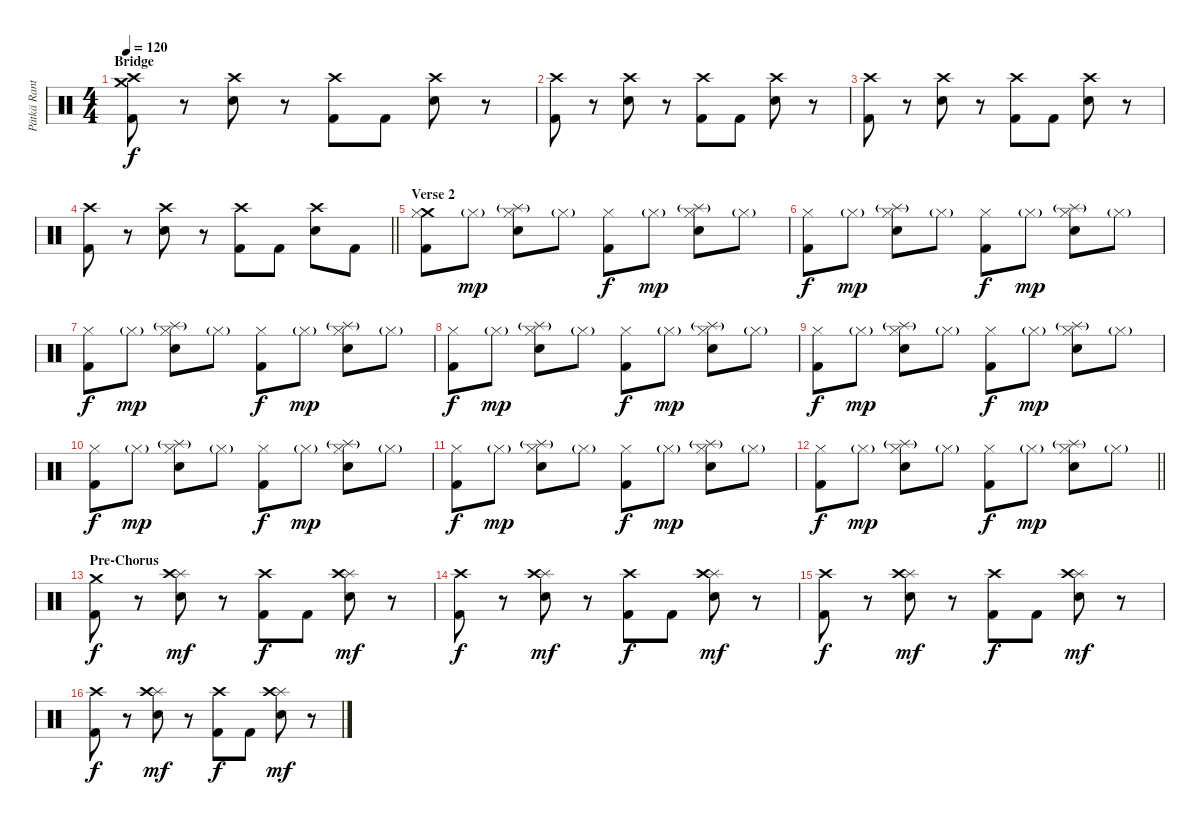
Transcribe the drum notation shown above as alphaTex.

\track ("Pätkä Rantala (Drums)" "Pätkä Rant") {instrument percussion}
\staff {score}
\articulation defaults
\ts (4 4)
\section ("" "Bridge")
\tempo 120
\clef neutral
\ks c
("Crash medium (hit)" "Crash high (hit)" "Kick (hit) 2").8{dy f} r.8 ("Crash high (hit)" "Snare (hit) 2").8 r.8 ("Crash high (hit)" "Kick (hit) 2").8 "Kick (hit) 2".8 ("Crash high (hit)" "Snare (hit) 2").8 r.8 |
("Crash high (hit)" "Kick (hit) 2").8 r.8 ("Crash high (hit)" "Snare (hit) 2").8 r.8 ("Crash high (hit)" "Kick (hit) 2").8 "Kick (hit) 2".8 ("Crash high (hit)" "Snare (hit) 2").8 r.8 |
("Crash high (hit)" "Kick (hit) 2").8 r.8 ("Crash high (hit)" "Snare (hit) 2").8 r.8 ("Crash high (hit)" "Kick (hit) 2").8 "Kick (hit) 2".8 ("Crash high (hit)" "Snare (hit) 2").8 r.8 |
\barLineRight lightlight
("Crash high (hit)" "Kick (hit) 2").8 r.8 ("Crash high (hit)" "Snare (hit) 2").8 r.8 ("Crash high (hit)" "Kick (hit) 2").8 "Kick (hit) 2".8 ("Crash high (hit)" "Snare (hit) 2").8 "Kick (hit) 2".8 |
\section ("" "Verse 2")
("Crash medium (hit)" "Hi-Hat (closed)" "Kick (hit) 2").8 "Hi-Hat (closed)"{g}.8{dy mp} ("Splash (hit)"{g} "Hi-Hat (closed)" "Snare (hit) 2").8 "Hi-Hat (closed)"{g}.8 ("Hi-Hat (closed)" "Kick (hit) 2").8{dy f} "Hi-Hat (closed)"{g}.8{dy mp} ("Splash (hit)"{g} "Hi-Hat (closed)" "Snare (hit) 2").8 "Hi-Hat (closed)"{g}.8 |
("Hi-Hat (closed)" "Kick (hit) 2").8{dy f} "Hi-Hat (closed)"{g}.8{dy mp} ("Splash (hit)"{g} "Hi-Hat (closed)" "Snare (hit) 2").8 "Hi-Hat (closed)"{g}.8 ("Hi-Hat (closed)" "Kick (hit) 2").8{dy f} "Hi-Hat (closed)"{g}.8{dy mp} ("Splash (hit)"{g} "Hi-Hat (closed)" "Snare (hit) 2").8 "Hi-Hat (closed)"{g}.8 |
("Hi-Hat (closed)" "Kick (hit) 2").8{dy f} "Hi-Hat (closed)"{g}.8{dy mp} ("Splash (hit)"{g} "Hi-Hat (closed)" "Snare (hit) 2").8 "Hi-Hat (closed)"{g}.8 ("Hi-Hat (closed)" "Kick (hit) 2").8{dy f} "Hi-Hat (closed)"{g}.8{dy mp} ("Splash (hit)"{g} "Hi-Hat (closed)" "Snare (hit) 2").8 "Hi-Hat (closed)"{g}.8 |
("Hi-Hat (closed)" "Kick (hit) 2").8{dy f} "Hi-Hat (closed)"{g}.8{dy mp} ("Splash (hit)"{g} "Hi-Hat (closed)" "Snare (hit) 2").8 "Hi-Hat (closed)"{g}.8 ("Hi-Hat (closed)" "Kick (hit) 2").8{dy f} "Hi-Hat (closed)"{g}.8{dy mp} ("Splash (hit)"{g} "Hi-Hat (closed)" "Snare (hit) 2").8 "Hi-Hat (closed)"{g}.8 |
("Hi-Hat (closed)" "Kick (hit) 2").8{dy f} "Hi-Hat (closed)"{g}.8{dy mp} ("Splash (hit)"{g} "Hi-Hat (closed)" "Snare (hit) 2").8 "Hi-Hat (closed)"{g}.8 ("Hi-Hat (closed)" "Kick (hit) 2").8{dy f} "Hi-Hat (closed)"{g}.8{dy mp} ("Splash (hit)"{g} "Hi-Hat (closed)" "Snare (hit) 2").8 "Hi-Hat (closed)"{g}.8 |
("Hi-Hat (closed)" "Kick (hit) 2").8{dy f} "Hi-Hat (closed)"{g}.8{dy mp} ("Splash (hit)"{g} "Hi-Hat (closed)" "Snare (hit) 2").8 "Hi-Hat (closed)"{g}.8 ("Hi-Hat (closed)" "Kick (hit) 2").8{dy f} "Hi-Hat (closed)"{g}.8{dy mp} ("Splash (hit)"{g} "Hi-Hat (closed)" "Snare (hit) 2").8 "Hi-Hat (closed)"{g}.8 |
("Hi-Hat (closed)" "Kick (hit) 2").8{dy f} "Hi-Hat (closed)"{g}.8{dy mp} ("Splash (hit)"{g} "Hi-Hat (closed)" "Snare (hit) 2").8 "Hi-Hat (closed)"{g}.8 ("Hi-Hat (closed)" "Kick (hit) 2").8{dy f} "Hi-Hat (closed)"{g}.8{dy mp} ("Splash (hit)"{g} "Hi-Hat (closed)" "Snare (hit) 2").8 "Hi-Hat (closed)"{g}.8 |
\barLineRight lightlight
("Hi-Hat (closed)" "Kick (hit) 2").8{dy f} "Hi-Hat (closed)"{g}.8{dy mp} ("Splash (hit)"{g} "Hi-Hat (closed)" "Snare (hit) 2").8 "Hi-Hat (closed)"{g}.8 ("Hi-Hat (closed)" "Kick (hit) 2").8{dy f} "Hi-Hat (closed)"{g}.8{dy mp} ("Splash (hit)"{g} "Hi-Hat (closed)" "Snare (hit) 2").8 "Hi-Hat (closed)"{g}.8 |
\section ("" "Pre-Chorus")
("Crash medium (hit)" "Kick (hit) 2").8{dy f} r.8 ("Splash (hit)" "Crash high (hit)" "Snare (hit) 2").8{dy mf} r.8 ("Crash high (hit)" "Kick (hit) 2").8{dy f} "Kick (hit) 2".8 ("Splash (hit)" "Crash high (hit)" "Snare (hit) 2").8{dy mf} r.8 |
("Crash high (hit)" "Kick (hit) 2").8{dy f} r.8 ("Splash (hit)" "Crash high (hit)" "Snare (hit) 2").8{dy mf} r.8 ("Crash high (hit)" "Kick (hit) 2").8{dy f} "Kick (hit) 2".8 ("Splash (hit)" "Crash high (hit)" "Snare (hit) 2").8{dy mf} r.8 |
("Crash high (hit)" "Kick (hit) 2").8{dy f} r.8 ("Splash (hit)" "Crash high (hit)" "Snare (hit) 2").8{dy mf} r.8 ("Crash high (hit)" "Kick (hit) 2").8{dy f} "Kick (hit) 2".8 ("Splash (hit)" "Crash high (hit)" "Snare (hit) 2").8{dy mf} r.8 |
("Crash high (hit)" "Kick (hit) 2").8{dy f} r.8 ("Splash (hit)" "Crash high (hit)" "Snare (hit) 2").8{dy mf} r.8 ("Crash high (hit)" "Kick (hit) 2").8{dy f} "Kick (hit) 2".8 ("Splash (hit)" "Crash high (hit)" "Snare (hit) 2").8{dy mf} r.8
